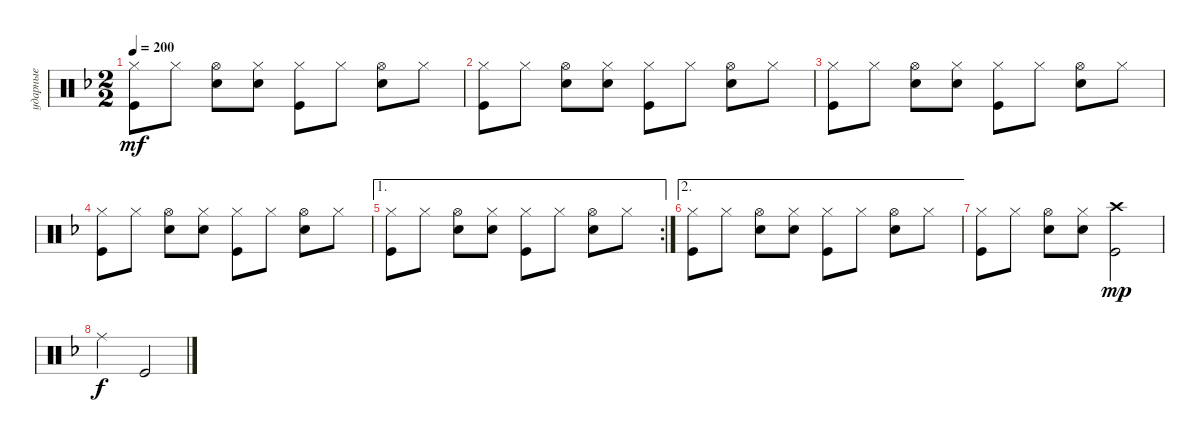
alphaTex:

\track ("ударные" "ударные") {instrument percussion}
\staff {score}
\articulation defaults
\ts (2 2)
\tempo 200
\clef neutral
\ks dminor
("Kick (hit)" "Hi-Hat (closed)").8{dy mf} "Hi-Hat (closed)".8 ("Snare (hit) 2" "Hi-Hat (open)").8 ("Snare (hit) 2" "Hi-Hat (closed)").8 ("Kick (hit)" "Hi-Hat (closed)").8 "Hi-Hat (closed)".8 ("Snare (hit) 2" "Hi-Hat (open)").8 "Hi-Hat (closed)".8 |
("Kick (hit)" "Hi-Hat (closed)").8 "Hi-Hat (closed)".8 ("Snare (hit) 2" "Hi-Hat (open)").8 ("Snare (hit) 2" "Hi-Hat (closed)").8 ("Kick (hit)" "Hi-Hat (closed)").8 "Hi-Hat (closed)".8 ("Snare (hit) 2" "Hi-Hat (open)").8 "Hi-Hat (closed)".8 |
("Kick (hit)" "Hi-Hat (closed)").8 "Hi-Hat (closed)".8 ("Snare (hit) 2" "Hi-Hat (open)").8 ("Snare (hit) 2" "Hi-Hat (closed)").8 ("Kick (hit)" "Hi-Hat (closed)").8 "Hi-Hat (closed)".8 ("Snare (hit) 2" "Hi-Hat (open)").8 "Hi-Hat (closed)".8 |
("Kick (hit)" "Hi-Hat (closed)").8 "Hi-Hat (closed)".8 ("Snare (hit) 2" "Hi-Hat (open)").8 ("Snare (hit) 2" "Hi-Hat (closed)").8 ("Kick (hit)" "Hi-Hat (closed)").8 "Hi-Hat (closed)".8 ("Snare (hit) 2" "Hi-Hat (open)").8 "Hi-Hat (closed)".8 |
\ae 1
\rc 2
("Kick (hit)" "Hi-Hat (closed)").8 "Hi-Hat (closed)".8 ("Snare (hit) 2" "Hi-Hat (open)").8 ("Snare (hit) 2" "Hi-Hat (closed)").8 ("Kick (hit)" "Hi-Hat (closed)").8 "Hi-Hat (closed)".8 ("Snare (hit) 2" "Hi-Hat (open)").8 "Hi-Hat (closed)".8 |
\ae 2
("Kick (hit)" "Hi-Hat (closed)").8 "Hi-Hat (closed)".8 ("Snare (hit) 2" "Hi-Hat (open)").8 ("Snare (hit) 2" "Hi-Hat (closed)").8 ("Kick (hit)" "Hi-Hat (closed)").8 "Hi-Hat (closed)".8 ("Snare (hit) 2" "Hi-Hat (open)").8 "Hi-Hat (closed)".8 |
("Kick (hit)" "Hi-Hat (closed)").8 "Hi-Hat (closed)".8 ("Snare (hit) 2" "Hi-Hat (open)").8 ("Snare (hit) 2" "Hi-Hat (closed)").8 ("Kick (hit)" "Crash high (hit)").2{dy mp} |
"Ride (middle)".2{dy f} "Kick (hit)".2
